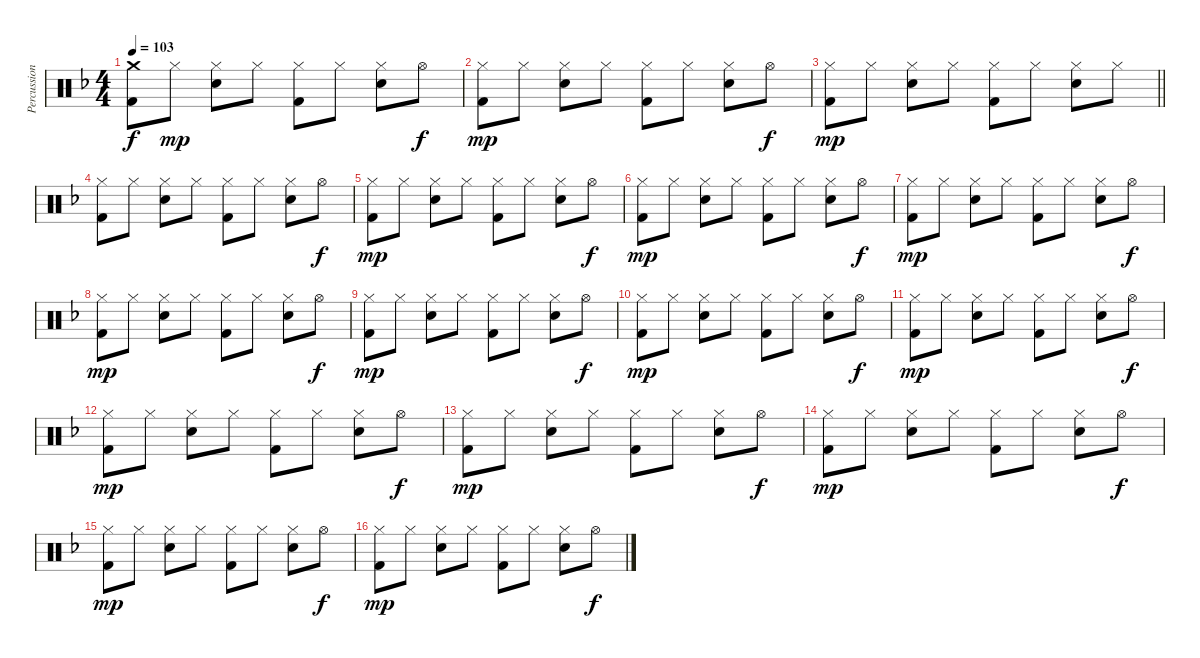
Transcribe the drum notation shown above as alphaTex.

\track ("Percussions" "Percussion") {instrument percussion}
\staff {score}
\articulation defaults
\ts (4 4)
\tempo 103
\clef neutral
\ks dminor
("Crash medium (hit)" "Kick (hit) 2").8{dy f} "Hi-Hat (closed)".8{dy mp} ("Hi-Hat (closed)" "Snare (hit) 2").8 "Hi-Hat (closed)".8 ("Hi-Hat (closed)" "Kick (hit) 2").8 "Hi-Hat (closed)".8 ("Hi-Hat (closed)" "Snare (hit) 2").8 "Hi-Hat (open)".8{dy f} |
("Hi-Hat (closed)" "Kick (hit) 2").8{dy mp} "Hi-Hat (closed)".8 ("Hi-Hat (closed)" "Snare (hit) 2").8 "Hi-Hat (closed)".8 ("Hi-Hat (closed)" "Kick (hit) 2").8 "Hi-Hat (closed)".8 ("Hi-Hat (closed)" "Snare (hit) 2").8 "Hi-Hat (open)".8{dy f} |
\barLineRight lightlight
("Hi-Hat (closed)" "Kick (hit) 2").8{dy mp} "Hi-Hat (closed)".8 ("Hi-Hat (closed)" "Snare (hit) 2").8 "Hi-Hat (closed)".8 ("Hi-Hat (closed)" "Kick (hit) 2").8 "Hi-Hat (closed)".8 ("Hi-Hat (closed)" "Snare (hit) 2").8 "Hi-Hat (closed)".8 |
("Hi-Hat (closed)" "Kick (hit) 2").8 "Hi-Hat (closed)".8 ("Hi-Hat (closed)" "Snare (hit) 2").8 "Hi-Hat (closed)".8 ("Hi-Hat (closed)" "Kick (hit) 2").8 "Hi-Hat (closed)".8 ("Hi-Hat (closed)" "Snare (hit) 2").8 "Hi-Hat (open)".8{dy f} |
("Hi-Hat (closed)" "Kick (hit) 2").8{dy mp} "Hi-Hat (closed)".8 ("Hi-Hat (closed)" "Snare (hit) 2").8 "Hi-Hat (closed)".8 ("Hi-Hat (closed)" "Kick (hit) 2").8 "Hi-Hat (closed)".8 ("Hi-Hat (closed)" "Snare (hit) 2").8 "Hi-Hat (open)".8{dy f} |
("Hi-Hat (closed)" "Kick (hit) 2").8{dy mp} "Hi-Hat (closed)".8 ("Hi-Hat (closed)" "Snare (hit) 2").8 "Hi-Hat (closed)".8 ("Hi-Hat (closed)" "Kick (hit) 2").8 "Hi-Hat (closed)".8 ("Hi-Hat (closed)" "Snare (hit) 2").8 "Hi-Hat (open)".8{dy f} |
("Hi-Hat (closed)" "Kick (hit) 2").8{dy mp} "Hi-Hat (closed)".8 ("Hi-Hat (closed)" "Snare (hit) 2").8 "Hi-Hat (closed)".8 ("Hi-Hat (closed)" "Kick (hit) 2").8 "Hi-Hat (closed)".8 ("Hi-Hat (closed)" "Snare (hit) 2").8 "Hi-Hat (open)".8{dy f} |
("Hi-Hat (closed)" "Kick (hit) 2").8{dy mp} "Hi-Hat (closed)".8 ("Hi-Hat (closed)" "Snare (hit) 2").8 "Hi-Hat (closed)".8 ("Hi-Hat (closed)" "Kick (hit) 2").8 "Hi-Hat (closed)".8 ("Hi-Hat (closed)" "Snare (hit) 2").8 "Hi-Hat (open)".8{dy f} |
("Hi-Hat (closed)" "Kick (hit) 2").8{dy mp} "Hi-Hat (closed)".8 ("Hi-Hat (closed)" "Snare (hit) 2").8 "Hi-Hat (closed)".8 ("Hi-Hat (closed)" "Kick (hit) 2").8 "Hi-Hat (closed)".8 ("Hi-Hat (closed)" "Snare (hit) 2").8 "Hi-Hat (open)".8{dy f} |
("Hi-Hat (closed)" "Kick (hit) 2").8{dy mp} "Hi-Hat (closed)".8 ("Hi-Hat (closed)" "Snare (hit) 2").8 "Hi-Hat (closed)".8 ("Hi-Hat (closed)" "Kick (hit) 2").8 "Hi-Hat (closed)".8 ("Hi-Hat (closed)" "Snare (hit) 2").8 "Hi-Hat (open)".8{dy f} |
("Hi-Hat (closed)" "Kick (hit) 2").8{dy mp} "Hi-Hat (closed)".8 ("Hi-Hat (closed)" "Snare (hit) 2").8 "Hi-Hat (closed)".8 ("Hi-Hat (closed)" "Kick (hit) 2").8 "Hi-Hat (closed)".8 ("Hi-Hat (closed)" "Snare (hit) 2").8 "Hi-Hat (open)".8{dy f} |
("Hi-Hat (closed)" "Kick (hit) 2").8{dy mp} "Hi-Hat (closed)".8 ("Hi-Hat (closed)" "Snare (hit) 2").8 "Hi-Hat (closed)".8 ("Hi-Hat (closed)" "Kick (hit) 2").8 "Hi-Hat (closed)".8 ("Hi-Hat (closed)" "Snare (hit) 2").8 "Hi-Hat (open)".8{dy f} |
("Hi-Hat (closed)" "Kick (hit) 2").8{dy mp} "Hi-Hat (closed)".8 ("Hi-Hat (closed)" "Snare (hit) 2").8 "Hi-Hat (closed)".8 ("Hi-Hat (closed)" "Kick (hit) 2").8 "Hi-Hat (closed)".8 ("Hi-Hat (closed)" "Snare (hit) 2").8 "Hi-Hat (open)".8{dy f} |
("Hi-Hat (closed)" "Kick (hit) 2").8{dy mp} "Hi-Hat (closed)".8 ("Hi-Hat (closed)" "Snare (hit) 2").8 "Hi-Hat (closed)".8 ("Hi-Hat (closed)" "Kick (hit) 2").8 "Hi-Hat (closed)".8 ("Hi-Hat (closed)" "Snare (hit) 2").8 "Hi-Hat (open)".8{dy f} |
("Hi-Hat (closed)" "Kick (hit) 2").8{dy mp} "Hi-Hat (closed)".8 ("Hi-Hat (closed)" "Snare (hit) 2").8 "Hi-Hat (closed)".8 ("Hi-Hat (closed)" "Kick (hit) 2").8 "Hi-Hat (closed)".8 ("Hi-Hat (closed)" "Snare (hit) 2").8 "Hi-Hat (open)".8{dy f} |
("Hi-Hat (closed)" "Kick (hit) 2").8{dy mp} "Hi-Hat (closed)".8 ("Hi-Hat (closed)" "Snare (hit) 2").8 "Hi-Hat (closed)".8 ("Hi-Hat (closed)" "Kick (hit) 2").8 "Hi-Hat (closed)".8 ("Hi-Hat (closed)" "Snare (hit) 2").8 "Hi-Hat (open)".8{dy f}
